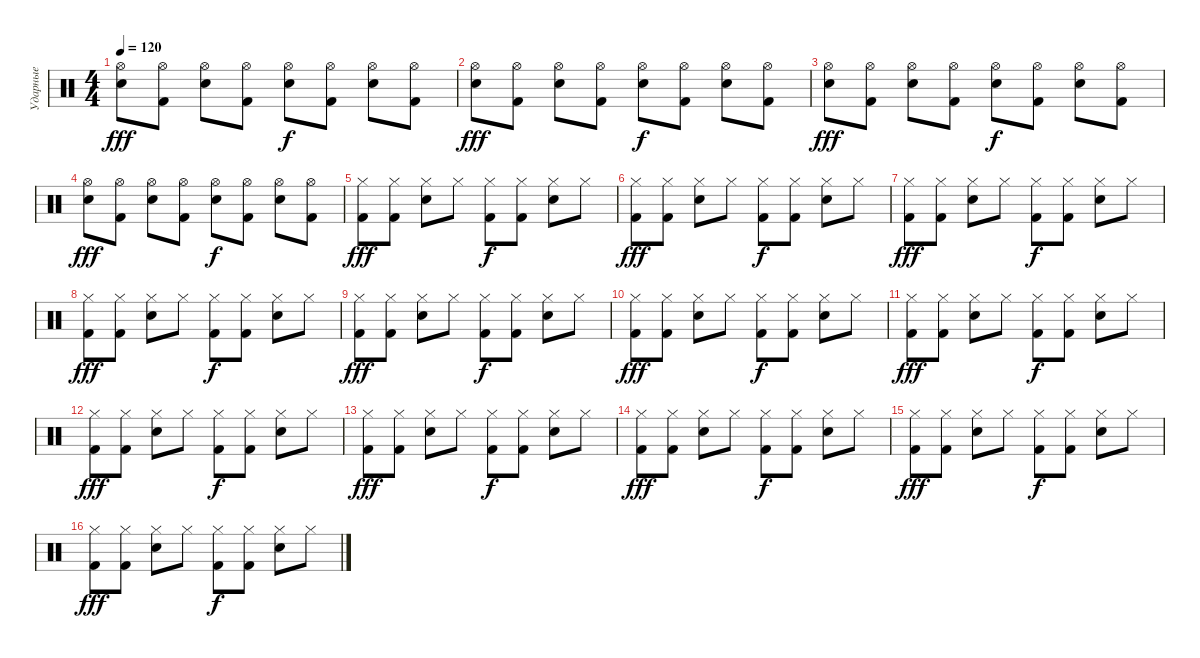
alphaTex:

\track ("Ударные" "Ударные") {instrument percussion}
\staff {score}
\articulation defaults
\ts (4 4)
\tempo 120
\clef neutral
\ks c
("Hi-Hat (open)" "Snare (hit) 2").8{dy fff} ("Hi-Hat (open)" "Kick (hit) 2").8 ("Hi-Hat (open)" "Snare (hit) 2").8 ("Hi-Hat (open)" "Kick (hit) 2").8 ("Hi-Hat (open)" "Snare (hit) 2").8{dy f} ("Hi-Hat (open)" "Kick (hit) 2").8 ("Hi-Hat (open)" "Snare (hit) 2").8 ("Hi-Hat (open)" "Kick (hit) 2").8 |
("Hi-Hat (open)" "Snare (hit) 2").8{dy fff} ("Hi-Hat (open)" "Kick (hit) 2").8 ("Hi-Hat (open)" "Snare (hit) 2").8 ("Hi-Hat (open)" "Kick (hit) 2").8 ("Hi-Hat (open)" "Snare (hit) 2").8{dy f} ("Hi-Hat (open)" "Kick (hit) 2").8 ("Hi-Hat (open)" "Snare (hit) 2").8 ("Hi-Hat (open)" "Kick (hit) 2").8 |
("Hi-Hat (open)" "Snare (hit) 2").8{dy fff} ("Hi-Hat (open)" "Kick (hit) 2").8 ("Hi-Hat (open)" "Snare (hit) 2").8 ("Hi-Hat (open)" "Kick (hit) 2").8 ("Hi-Hat (open)" "Snare (hit) 2").8{dy f} ("Hi-Hat (open)" "Kick (hit) 2").8 ("Hi-Hat (open)" "Snare (hit) 2").8 ("Hi-Hat (open)" "Kick (hit) 2").8 |
("Hi-Hat (open)" "Snare (hit) 2").8{dy fff} ("Hi-Hat (open)" "Kick (hit) 2").8 ("Hi-Hat (open)" "Snare (hit) 2").8 ("Hi-Hat (open)" "Kick (hit) 2").8 ("Hi-Hat (open)" "Snare (hit) 2").8{dy f} ("Hi-Hat (open)" "Kick (hit) 2").8 ("Hi-Hat (open)" "Snare (hit) 2").8 ("Hi-Hat (open)" "Kick (hit) 2").8 |
("Hi-Hat (closed)" "Kick (hit) 2").8{dy fff} ("Hi-Hat (closed)" "Kick (hit) 2").8 ("Hi-Hat (closed)" "Snare (hit) 2").8 "Hi-Hat (closed)".8 ("Hi-Hat (closed)" "Kick (hit) 2").8{dy f} ("Hi-Hat (closed)" "Kick (hit) 2").8 ("Hi-Hat (closed)" "Snare (hit) 2").8 "Hi-Hat (closed)".8 |
("Hi-Hat (closed)" "Kick (hit) 2").8{dy fff} ("Hi-Hat (closed)" "Kick (hit) 2").8 ("Hi-Hat (closed)" "Snare (hit) 2").8 "Hi-Hat (closed)".8 ("Hi-Hat (closed)" "Kick (hit) 2").8{dy f} ("Hi-Hat (closed)" "Kick (hit) 2").8 ("Hi-Hat (closed)" "Snare (hit) 2").8 "Hi-Hat (closed)".8 |
("Hi-Hat (closed)" "Kick (hit) 2").8{dy fff} ("Hi-Hat (closed)" "Kick (hit) 2").8 ("Hi-Hat (closed)" "Snare (hit) 2").8 "Hi-Hat (closed)".8 ("Hi-Hat (closed)" "Kick (hit) 2").8{dy f} ("Hi-Hat (closed)" "Kick (hit) 2").8 ("Hi-Hat (closed)" "Snare (hit) 2").8 "Hi-Hat (closed)".8 |
("Hi-Hat (closed)" "Kick (hit) 2").8{dy fff} ("Hi-Hat (closed)" "Kick (hit) 2").8 ("Hi-Hat (closed)" "Snare (hit) 2").8 "Hi-Hat (closed)".8 ("Hi-Hat (closed)" "Kick (hit) 2").8{dy f} ("Hi-Hat (closed)" "Kick (hit) 2").8 ("Hi-Hat (closed)" "Snare (hit) 2").8 "Hi-Hat (closed)".8 |
("Hi-Hat (closed)" "Kick (hit) 2").8{dy fff} ("Hi-Hat (closed)" "Kick (hit) 2").8 ("Hi-Hat (closed)" "Snare (hit) 2").8 "Hi-Hat (closed)".8 ("Hi-Hat (closed)" "Kick (hit) 2").8{dy f} ("Hi-Hat (closed)" "Kick (hit) 2").8 ("Hi-Hat (closed)" "Snare (hit) 2").8 "Hi-Hat (closed)".8 |
("Hi-Hat (closed)" "Kick (hit) 2").8{dy fff} ("Hi-Hat (closed)" "Kick (hit) 2").8 ("Hi-Hat (closed)" "Snare (hit) 2").8 "Hi-Hat (closed)".8 ("Hi-Hat (closed)" "Kick (hit) 2").8{dy f} ("Hi-Hat (closed)" "Kick (hit) 2").8 ("Hi-Hat (closed)" "Snare (hit) 2").8 "Hi-Hat (closed)".8 |
("Hi-Hat (closed)" "Kick (hit) 2").8{dy fff} ("Hi-Hat (closed)" "Kick (hit) 2").8 ("Hi-Hat (closed)" "Snare (hit) 2").8 "Hi-Hat (closed)".8 ("Hi-Hat (closed)" "Kick (hit) 2").8{dy f} ("Hi-Hat (closed)" "Kick (hit) 2").8 ("Hi-Hat (closed)" "Snare (hit) 2").8 "Hi-Hat (closed)".8 |
("Hi-Hat (closed)" "Kick (hit) 2").8{dy fff} ("Hi-Hat (closed)" "Kick (hit) 2").8 ("Hi-Hat (closed)" "Snare (hit) 2").8 "Hi-Hat (closed)".8 ("Hi-Hat (closed)" "Kick (hit) 2").8{dy f} ("Hi-Hat (closed)" "Kick (hit) 2").8 ("Hi-Hat (closed)" "Snare (hit) 2").8 "Hi-Hat (closed)".8 |
("Hi-Hat (closed)" "Kick (hit) 2").8{dy fff} ("Hi-Hat (closed)" "Kick (hit) 2").8 ("Hi-Hat (closed)" "Snare (hit) 2").8 "Hi-Hat (closed)".8 ("Hi-Hat (closed)" "Kick (hit) 2").8{dy f} ("Hi-Hat (closed)" "Kick (hit) 2").8 ("Hi-Hat (closed)" "Snare (hit) 2").8 "Hi-Hat (closed)".8 |
("Hi-Hat (closed)" "Kick (hit) 2").8{dy fff} ("Hi-Hat (closed)" "Kick (hit) 2").8 ("Hi-Hat (closed)" "Snare (hit) 2").8 "Hi-Hat (closed)".8 ("Hi-Hat (closed)" "Kick (hit) 2").8{dy f} ("Hi-Hat (closed)" "Kick (hit) 2").8 ("Hi-Hat (closed)" "Snare (hit) 2").8 "Hi-Hat (closed)".8 |
("Hi-Hat (closed)" "Kick (hit) 2").8{dy fff} ("Hi-Hat (closed)" "Kick (hit) 2").8 ("Hi-Hat (closed)" "Snare (hit) 2").8 "Hi-Hat (closed)".8 ("Hi-Hat (closed)" "Kick (hit) 2").8{dy f} ("Hi-Hat (closed)" "Kick (hit) 2").8 ("Hi-Hat (closed)" "Snare (hit) 2").8 "Hi-Hat (closed)".8 |
("Hi-Hat (closed)" "Kick (hit) 2").8{dy fff} ("Hi-Hat (closed)" "Kick (hit) 2").8 ("Hi-Hat (closed)" "Snare (hit) 2").8 "Hi-Hat (closed)".8 ("Hi-Hat (closed)" "Kick (hit) 2").8{dy f} ("Hi-Hat (closed)" "Kick (hit) 2").8 ("Hi-Hat (closed)" "Snare (hit) 2").8 "Hi-Hat (closed)".8
